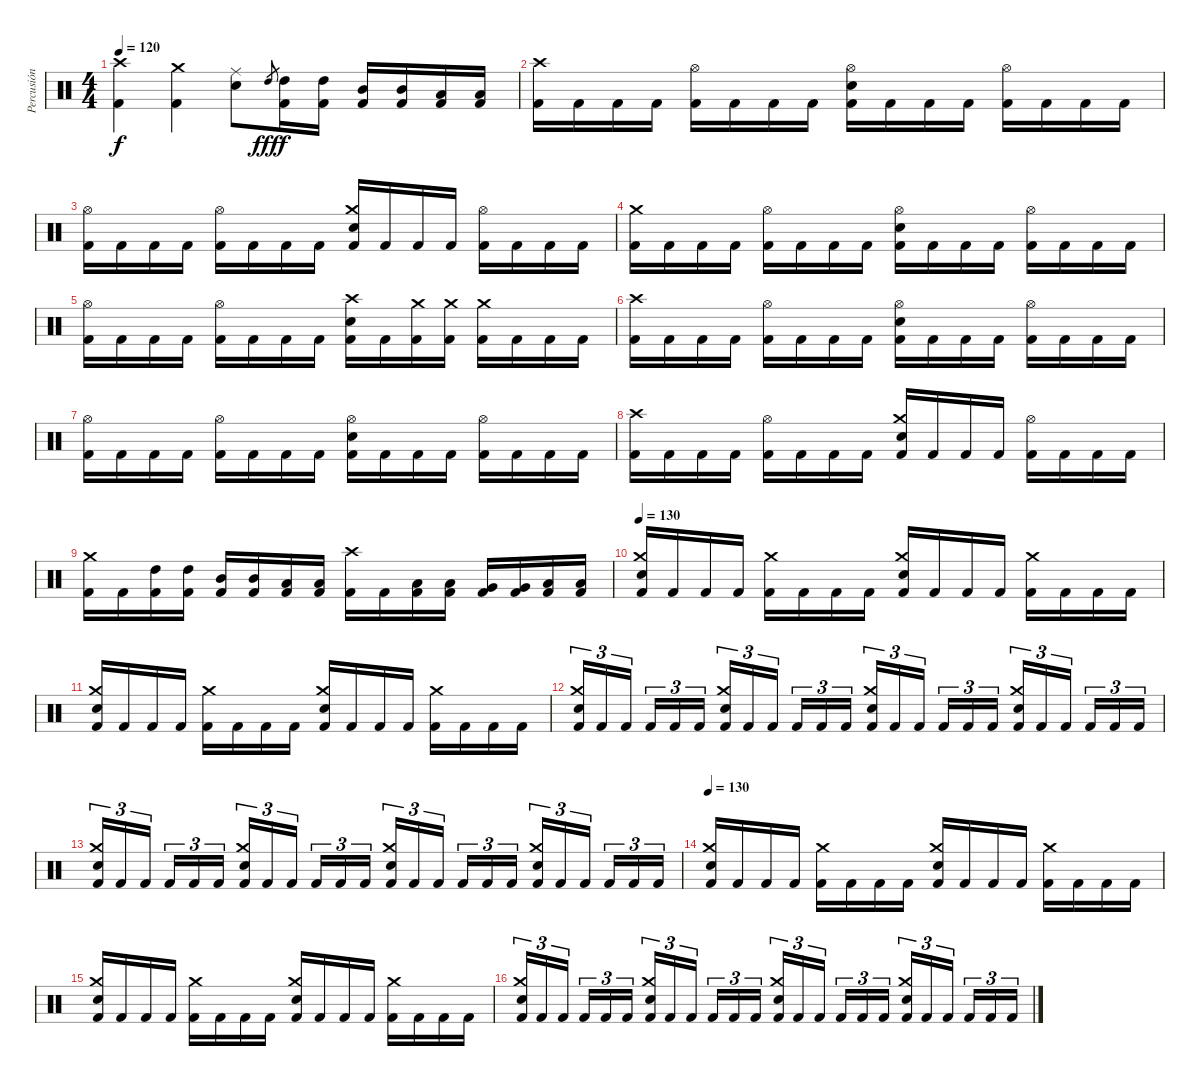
\track ("Percusión" "Percusión") {instrument percussion}
\staff {score}
\articulation defaults
\ts (4 4)
\tempo 120
\clef neutral
\ks c
("Crash high (hit)" "Kick (hit) 2").4{dy f} ("Crash medium (hit)" "Kick (hit) 2").4 ("Ride (middle)" "Electric Snare (hit)").8 "High Tom (hit)".8{gr dy fff} ("High Tom (hit)" "Kick (hit) 2").16{dy f} ("High Tom (hit)" "Kick (hit) 2").16 ("Mid Tom (hit)" "Kick (hit) 2").16 ("Mid Tom (hit)" "Kick (hit) 2").16 ("Low Tom (hit)" "Kick (hit) 2").16 ("Low Tom (hit)" "Kick (hit) 2").16 |
("Crash high (hit)" "Kick (hit) 2").16 "Kick (hit) 2".16 "Kick (hit) 2".16 "Kick (hit) 2".16 ("Hi-Hat (open)" "Kick (hit) 2").16 "Kick (hit) 2".16 "Kick (hit) 2".16 "Kick (hit) 2".16 ("Hi-Hat (open)" "Electric Snare (hit)" "Kick (hit) 2").16 "Kick (hit) 2".16 "Kick (hit) 2".16 "Kick (hit) 2".16 ("Hi-Hat (open)" "Kick (hit) 2").16 "Kick (hit) 2".16 "Kick (hit) 2".16 "Kick (hit) 2".16 |
("Hi-Hat (open)" "Kick (hit) 2").16 "Kick (hit) 2".16 "Kick (hit) 2".16 "Kick (hit) 2".16 ("Hi-Hat (open)" "Kick (hit) 2").16 "Kick (hit) 2".16 "Kick (hit) 2".16 "Kick (hit) 2".16 ("Crash medium (hit)" "Electric Snare (hit)" "Kick (hit) 2").16 "Kick (hit) 2".16 "Kick (hit) 2".16 "Kick (hit) 2".16 ("Hi-Hat (open)" "Kick (hit) 2").16 "Kick (hit) 2".16 "Kick (hit) 2".16 "Kick (hit) 2".16 |
("Crash medium (hit)" "Kick (hit) 2").16 "Kick (hit) 2".16 "Kick (hit) 2".16 "Kick (hit) 2".16 ("Hi-Hat (open)" "Kick (hit) 2").16 "Kick (hit) 2".16 "Kick (hit) 2".16 "Kick (hit) 2".16 ("Hi-Hat (open)" "Electric Snare (hit)" "Kick (hit) 2").16 "Kick (hit) 2".16 "Kick (hit) 2".16 "Kick (hit) 2".16 ("Hi-Hat (open)" "Kick (hit) 2").16 "Kick (hit) 2".16 "Kick (hit) 2".16 "Kick (hit) 2".16 |
("Hi-Hat (open)" "Kick (hit) 2").16 "Kick (hit) 2".16 "Kick (hit) 2".16 "Kick (hit) 2".16 ("Hi-Hat (open)" "Kick (hit) 2").16 "Kick (hit) 2".16 "Kick (hit) 2".16 "Kick (hit) 2".16 ("Crash high (hit)" "Electric Snare (hit)" "Kick (hit) 2").16 "Kick (hit) 2".16 ("Crash medium (hit)" "Kick (hit) 2").16 ("Crash medium (hit)" "Kick (hit) 2").16 ("Crash medium (hit)" "Kick (hit) 2").16 "Kick (hit) 2".16 "Kick (hit) 2".16 "Kick (hit) 2".16 |
("Crash high (hit)" "Kick (hit) 2").16 "Kick (hit) 2".16 "Kick (hit) 2".16 "Kick (hit) 2".16 ("Hi-Hat (open)" "Kick (hit) 2").16 "Kick (hit) 2".16 "Kick (hit) 2".16 "Kick (hit) 2".16 ("Hi-Hat (open)" "Electric Snare (hit)" "Kick (hit) 2").16 "Kick (hit) 2".16 "Kick (hit) 2".16 "Kick (hit) 2".16 ("Hi-Hat (open)" "Kick (hit) 2").16 "Kick (hit) 2".16 "Kick (hit) 2".16 "Kick (hit) 2".16 |
("Hi-Hat (open)" "Kick (hit) 2").16 "Kick (hit) 2".16 "Kick (hit) 2".16 "Kick (hit) 2".16 ("Hi-Hat (open)" "Kick (hit) 2").16 "Kick (hit) 2".16 "Kick (hit) 2".16 "Kick (hit) 2".16 ("Hi-Hat (open)" "Electric Snare (hit)" "Kick (hit) 2").16 "Kick (hit) 2".16 "Kick (hit) 2".16 "Kick (hit) 2".16 ("Hi-Hat (open)" "Kick (hit) 2").16 "Kick (hit) 2".16 "Kick (hit) 2".16 "Kick (hit) 2".16 |
("Crash high (hit)" "Kick (hit) 2").16 "Kick (hit) 2".16 "Kick (hit) 2".16 "Kick (hit) 2".16 ("Hi-Hat (open)" "Kick (hit) 2").16 "Kick (hit) 2".16 "Kick (hit) 2".16 "Kick (hit) 2".16 ("Crash medium (hit)" "Electric Snare (hit)" "Kick (hit) 2").16 "Kick (hit) 2".16 "Kick (hit) 2".16 "Kick (hit) 2".16 ("Hi-Hat (open)" "Kick (hit) 2").16 "Kick (hit) 2".16 "Kick (hit) 2".16 "Kick (hit) 2".16 |
("Crash medium (hit)" "Kick (hit) 2").16 "Kick (hit) 2".16 ("High Tom (hit)" "Kick (hit) 2").16 ("High Tom (hit)" "Kick (hit) 2").16 ("Mid Tom (hit)" "Kick (hit) 2").16 ("Mid Tom (hit)" "Kick (hit) 2").16 ("Low Tom (hit)" "Kick (hit) 2").16 ("Low Tom (hit)" "Kick (hit) 2").16 ("Crash high (hit)" "Kick (hit) 2").16 "Kick (hit) 2".16 ("Low Tom (hit)" "Kick (hit) 2").16 ("Low Tom (hit)" "Kick (hit) 2").16 ("Very Low Tom (hit)" "Kick (hit) 2").16 ("Very Low Tom (hit)" "Kick (hit) 2").16 ("Low Floor Tom (hit)" "Kick (hit) 2").16 ("Low Floor Tom (hit)" "Kick (hit) 2").16 |
\tempo 130
("Crash medium (hit)" "Electric Snare (hit)" "Kick (hit) 2").16 "Kick (hit) 2".16 "Kick (hit) 2".16 "Kick (hit) 2".16 ("Crash medium (hit)" "Kick (hit) 2").16 "Kick (hit) 2".16 "Kick (hit) 2".16 "Kick (hit) 2".16 ("Crash medium (hit)" "Electric Snare (hit)" "Kick (hit) 2").16 "Kick (hit) 2".16 "Kick (hit) 2".16 "Kick (hit) 2".16 ("Crash medium (hit)" "Kick (hit) 2").16 "Kick (hit) 2".16 "Kick (hit) 2".16 "Kick (hit) 2".16 |
("Crash medium (hit)" "Electric Snare (hit)" "Kick (hit) 2").16 "Kick (hit) 2".16 "Kick (hit) 2".16 "Kick (hit) 2".16 ("Crash medium (hit)" "Kick (hit) 2").16 "Kick (hit) 2".16 "Kick (hit) 2".16 "Kick (hit) 2".16 ("Crash medium (hit)" "Electric Snare (hit)" "Kick (hit) 2").16 "Kick (hit) 2".16 "Kick (hit) 2".16 "Kick (hit) 2".16 ("Crash medium (hit)" "Kick (hit) 2").16 "Kick (hit) 2".16 "Kick (hit) 2".16 "Kick (hit) 2".16 |
("Crash medium (hit)" "Electric Snare (hit)" "Kick (hit) 2").16{tu (3 2)} "Kick (hit) 2".16{tu (3 2)} "Kick (hit) 2".16{tu (3 2)} "Kick (hit) 2".16{tu (3 2)} "Kick (hit) 2".16{tu (3 2)} "Kick (hit) 2".16{tu (3 2)} ("Crash medium (hit)" "Electric Snare (hit)" "Kick (hit) 2").16{tu (3 2)} "Kick (hit) 2".16{tu (3 2)} "Kick (hit) 2".16{tu (3 2)} "Kick (hit) 2".16{tu (3 2)} "Kick (hit) 2".16{tu (3 2)} "Kick (hit) 2".16{tu (3 2)} ("Crash medium (hit)" "Electric Snare (hit)" "Kick (hit) 2").16{tu (3 2)} "Kick (hit) 2".16{tu (3 2)} "Kick (hit) 2".16{tu (3 2)} "Kick (hit) 2".16{tu (3 2)} "Kick (hit) 2".16{tu (3 2)} "Kick (hit) 2".16{tu (3 2)} ("Crash medium (hit)" "Electric Snare (hit)" "Kick (hit) 2").16{tu (3 2)} "Kick (hit) 2".16{tu (3 2)} "Kick (hit) 2".16{tu (3 2)} "Kick (hit) 2".16{tu (3 2)} "Kick (hit) 2".16{tu (3 2)} "Kick (hit) 2".16{tu (3 2)} |
("Crash medium (hit)" "Electric Snare (hit)" "Kick (hit) 2").16{tu (3 2)} "Kick (hit) 2".16{tu (3 2)} "Kick (hit) 2".16{tu (3 2)} "Kick (hit) 2".16{tu (3 2)} "Kick (hit) 2".16{tu (3 2)} "Kick (hit) 2".16{tu (3 2)} ("Crash medium (hit)" "Electric Snare (hit)" "Kick (hit) 2").16{tu (3 2)} "Kick (hit) 2".16{tu (3 2)} "Kick (hit) 2".16{tu (3 2)} "Kick (hit) 2".16{tu (3 2)} "Kick (hit) 2".16{tu (3 2)} "Kick (hit) 2".16{tu (3 2)} ("Crash medium (hit)" "Electric Snare (hit)" "Kick (hit) 2").16{tu (3 2)} "Kick (hit) 2".16{tu (3 2)} "Kick (hit) 2".16{tu (3 2)} "Kick (hit) 2".16{tu (3 2)} "Kick (hit) 2".16{tu (3 2)} "Kick (hit) 2".16{tu (3 2)} ("Crash medium (hit)" "Electric Snare (hit)" "Kick (hit) 2").16{tu (3 2)} "Kick (hit) 2".16{tu (3 2)} "Kick (hit) 2".16{tu (3 2)} "Kick (hit) 2".16{tu (3 2)} "Kick (hit) 2".16{tu (3 2)} "Kick (hit) 2".16{tu (3 2)} |
\tempo 130
("Crash medium (hit)" "Electric Snare (hit)" "Kick (hit) 2").16 "Kick (hit) 2".16 "Kick (hit) 2".16 "Kick (hit) 2".16 ("Crash medium (hit)" "Kick (hit) 2").16 "Kick (hit) 2".16 "Kick (hit) 2".16 "Kick (hit) 2".16 ("Crash medium (hit)" "Electric Snare (hit)" "Kick (hit) 2").16 "Kick (hit) 2".16 "Kick (hit) 2".16 "Kick (hit) 2".16 ("Crash medium (hit)" "Kick (hit) 2").16 "Kick (hit) 2".16 "Kick (hit) 2".16 "Kick (hit) 2".16 |
("Crash medium (hit)" "Electric Snare (hit)" "Kick (hit) 2").16 "Kick (hit) 2".16 "Kick (hit) 2".16 "Kick (hit) 2".16 ("Crash medium (hit)" "Kick (hit) 2").16 "Kick (hit) 2".16 "Kick (hit) 2".16 "Kick (hit) 2".16 ("Crash medium (hit)" "Electric Snare (hit)" "Kick (hit) 2").16 "Kick (hit) 2".16 "Kick (hit) 2".16 "Kick (hit) 2".16 ("Crash medium (hit)" "Kick (hit) 2").16 "Kick (hit) 2".16 "Kick (hit) 2".16 "Kick (hit) 2".16 |
("Crash medium (hit)" "Electric Snare (hit)" "Kick (hit) 2").16{tu (3 2)} "Kick (hit) 2".16{tu (3 2)} "Kick (hit) 2".16{tu (3 2)} "Kick (hit) 2".16{tu (3 2)} "Kick (hit) 2".16{tu (3 2)} "Kick (hit) 2".16{tu (3 2)} ("Crash medium (hit)" "Electric Snare (hit)" "Kick (hit) 2").16{tu (3 2)} "Kick (hit) 2".16{tu (3 2)} "Kick (hit) 2".16{tu (3 2)} "Kick (hit) 2".16{tu (3 2)} "Kick (hit) 2".16{tu (3 2)} "Kick (hit) 2".16{tu (3 2)} ("Crash medium (hit)" "Electric Snare (hit)" "Kick (hit) 2").16{tu (3 2)} "Kick (hit) 2".16{tu (3 2)} "Kick (hit) 2".16{tu (3 2)} "Kick (hit) 2".16{tu (3 2)} "Kick (hit) 2".16{tu (3 2)} "Kick (hit) 2".16{tu (3 2)} ("Crash medium (hit)" "Electric Snare (hit)" "Kick (hit) 2").16{tu (3 2)} "Kick (hit) 2".16{tu (3 2)} "Kick (hit) 2".16{tu (3 2)} "Kick (hit) 2".16{tu (3 2)} "Kick (hit) 2".16{tu (3 2)} "Kick (hit) 2".16{tu (3 2)}
